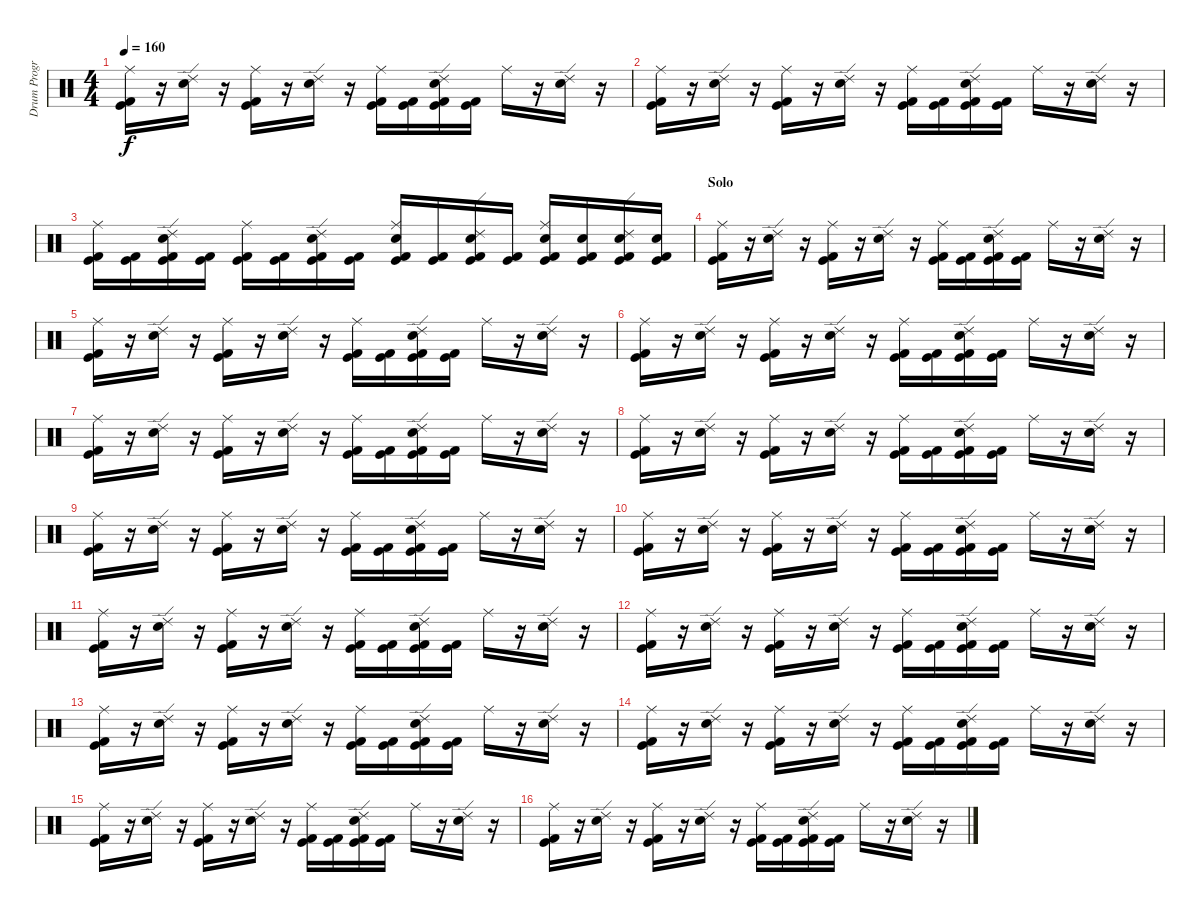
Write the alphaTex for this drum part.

\track ("Drum Program - BG" "Drum Progr") {instrument percussion}
\staff {score}
\articulation defaults
\ts (4 4)
\tempo 160
\clef neutral
\ks c
("Kick (hit) 2" "Kick (hit)" "Ride (middle)").16{dy f} r.16 ("Electric Snare (hit)" "Ride (edge) 2").16 r.16 ("Kick (hit)" "Kick (hit) 2" "Ride (middle)").16 r.16 ("Electric Snare (hit)" "Ride (edge) 2").16 r.16 ("Kick (hit)" "Kick (hit) 2" "Ride (middle)").16 ("Kick (hit)" "Kick (hit) 2").16 ("Kick (hit)" "Kick (hit) 2" "Electric Snare (hit)" "Ride (edge) 2").16 ("Kick (hit)" "Kick (hit) 2").16 "Ride (middle)".16 r.16 ("Electric Snare (hit)" "Ride (edge) 2").16 r.16 |
("Kick (hit) 2" "Kick (hit)" "Ride (middle)").16 r.16 ("Electric Snare (hit)" "Ride (edge) 2").16 r.16 ("Kick (hit)" "Kick (hit) 2" "Ride (middle)").16 r.16 ("Electric Snare (hit)" "Ride (edge) 2").16 r.16 ("Kick (hit)" "Kick (hit) 2" "Ride (middle)").16 ("Kick (hit)" "Kick (hit) 2").16 ("Kick (hit)" "Kick (hit) 2" "Electric Snare (hit)" "Ride (edge) 2").16 ("Kick (hit)" "Kick (hit) 2").16 "Ride (middle)".16 r.16 ("Electric Snare (hit)" "Ride (edge) 2").16 r.16 |
("Kick (hit)" "Kick (hit) 2" "Ride (middle)").16 ("Kick (hit)" "Kick (hit) 2").16 ("Kick (hit)" "Kick (hit) 2" "Electric Snare (hit)" "Ride (edge) 2").16 ("Kick (hit)" "Kick (hit) 2").16 ("Kick (hit)" "Kick (hit) 2" "Ride (middle)").16 ("Kick (hit)" "Kick (hit) 2").16 ("Kick (hit)" "Kick (hit) 2" "Electric Snare (hit)" "Ride (edge) 2").16 ("Kick (hit)" "Kick (hit) 2").16 ("Kick (hit)" "Kick (hit) 2" "Electric Snare (hit)" "Ride (middle)").16 ("Kick (hit)" "Kick (hit) 2").16 ("Kick (hit)" "Kick (hit) 2" "Electric Snare (hit)" "Ride (edge) 2").16 ("Kick (hit)" "Kick (hit) 2").16 ("Kick (hit)" "Kick (hit) 2" "Electric Snare (hit)" "Ride (middle)").16 ("Kick (hit)" "Kick (hit) 2" "Electric Snare (hit)").16 ("Kick (hit)" "Kick (hit) 2" "Electric Snare (hit)" "Ride (edge) 2").16 ("Kick (hit)" "Kick (hit) 2" "Electric Snare (hit)").16 |
\section ("" "Solo")
("Kick (hit) 2" "Kick (hit)" "Ride (middle)").16 r.16 ("Electric Snare (hit)" "Ride (edge) 2").16 r.16 ("Kick (hit)" "Kick (hit) 2" "Ride (middle)").16 r.16 ("Electric Snare (hit)" "Ride (edge) 2").16 r.16 ("Kick (hit)" "Kick (hit) 2" "Ride (middle)").16 ("Kick (hit)" "Kick (hit) 2").16 ("Kick (hit)" "Kick (hit) 2" "Electric Snare (hit)" "Ride (edge) 2").16 ("Kick (hit)" "Kick (hit) 2").16 "Ride (middle)".16 r.16 ("Electric Snare (hit)" "Ride (edge) 2").16 r.16 |
("Kick (hit) 2" "Kick (hit)" "Ride (middle)").16 r.16 ("Electric Snare (hit)" "Ride (edge) 2").16 r.16 ("Kick (hit)" "Kick (hit) 2" "Ride (middle)").16 r.16 ("Electric Snare (hit)" "Ride (edge) 2").16 r.16 ("Kick (hit)" "Kick (hit) 2" "Ride (middle)").16 ("Kick (hit)" "Kick (hit) 2").16 ("Kick (hit)" "Kick (hit) 2" "Electric Snare (hit)" "Ride (edge) 2").16 ("Kick (hit)" "Kick (hit) 2").16 "Ride (middle)".16 r.16 ("Electric Snare (hit)" "Ride (edge) 2").16 r.16 |
("Kick (hit) 2" "Kick (hit)" "Ride (middle)").16 r.16 ("Electric Snare (hit)" "Ride (edge) 2").16 r.16 ("Kick (hit)" "Kick (hit) 2" "Ride (middle)").16 r.16 ("Electric Snare (hit)" "Ride (edge) 2").16 r.16 ("Kick (hit)" "Kick (hit) 2" "Ride (middle)").16 ("Kick (hit)" "Kick (hit) 2").16 ("Kick (hit)" "Kick (hit) 2" "Electric Snare (hit)" "Ride (edge) 2").16 ("Kick (hit)" "Kick (hit) 2").16 "Ride (middle)".16 r.16 ("Electric Snare (hit)" "Ride (edge) 2").16 r.16 |
("Kick (hit) 2" "Kick (hit)" "Ride (middle)").16 r.16 ("Electric Snare (hit)" "Ride (edge) 2").16 r.16 ("Kick (hit)" "Kick (hit) 2" "Ride (middle)").16 r.16 ("Electric Snare (hit)" "Ride (edge) 2").16 r.16 ("Kick (hit)" "Kick (hit) 2" "Ride (middle)").16 ("Kick (hit)" "Kick (hit) 2").16 ("Kick (hit)" "Kick (hit) 2" "Electric Snare (hit)" "Ride (edge) 2").16 ("Kick (hit)" "Kick (hit) 2").16 "Ride (middle)".16 r.16 ("Electric Snare (hit)" "Ride (edge) 2").16 r.16 |
("Kick (hit) 2" "Kick (hit)" "Ride (middle)").16 r.16 ("Electric Snare (hit)" "Ride (edge) 2").16 r.16 ("Kick (hit)" "Kick (hit) 2" "Ride (middle)").16 r.16 ("Electric Snare (hit)" "Ride (edge) 2").16 r.16 ("Kick (hit)" "Kick (hit) 2" "Ride (middle)").16 ("Kick (hit)" "Kick (hit) 2").16 ("Kick (hit)" "Kick (hit) 2" "Electric Snare (hit)" "Ride (edge) 2").16 ("Kick (hit)" "Kick (hit) 2").16 "Ride (middle)".16 r.16 ("Electric Snare (hit)" "Ride (edge) 2").16 r.16 |
("Kick (hit) 2" "Kick (hit)" "Ride (middle)").16 r.16 ("Electric Snare (hit)" "Ride (edge) 2").16 r.16 ("Kick (hit)" "Kick (hit) 2" "Ride (middle)").16 r.16 ("Electric Snare (hit)" "Ride (edge) 2").16 r.16 ("Kick (hit)" "Kick (hit) 2" "Ride (middle)").16 ("Kick (hit)" "Kick (hit) 2").16 ("Kick (hit)" "Kick (hit) 2" "Electric Snare (hit)" "Ride (edge) 2").16 ("Kick (hit)" "Kick (hit) 2").16 "Ride (middle)".16 r.16 ("Electric Snare (hit)" "Ride (edge) 2").16 r.16 |
("Kick (hit) 2" "Kick (hit)" "Ride (middle)").16 r.16 ("Electric Snare (hit)" "Ride (edge) 2").16 r.16 ("Kick (hit)" "Kick (hit) 2" "Ride (middle)").16 r.16 ("Electric Snare (hit)" "Ride (edge) 2").16 r.16 ("Kick (hit)" "Kick (hit) 2" "Ride (middle)").16 ("Kick (hit)" "Kick (hit) 2").16 ("Kick (hit)" "Kick (hit) 2" "Electric Snare (hit)" "Ride (edge) 2").16 ("Kick (hit)" "Kick (hit) 2").16 "Ride (middle)".16 r.16 ("Electric Snare (hit)" "Ride (edge) 2").16 r.16 |
("Kick (hit) 2" "Kick (hit)" "Ride (middle)").16 r.16 ("Electric Snare (hit)" "Ride (edge) 2").16 r.16 ("Kick (hit)" "Kick (hit) 2" "Ride (middle)").16 r.16 ("Electric Snare (hit)" "Ride (edge) 2").16 r.16 ("Kick (hit)" "Kick (hit) 2" "Ride (middle)").16 ("Kick (hit)" "Kick (hit) 2").16 ("Kick (hit)" "Kick (hit) 2" "Electric Snare (hit)" "Ride (edge) 2").16 ("Kick (hit)" "Kick (hit) 2").16 "Ride (middle)".16 r.16 ("Electric Snare (hit)" "Ride (edge) 2").16 r.16 |
("Kick (hit) 2" "Kick (hit)" "Ride (middle)").16 r.16 ("Electric Snare (hit)" "Ride (edge) 2").16 r.16 ("Kick (hit)" "Kick (hit) 2" "Ride (middle)").16 r.16 ("Electric Snare (hit)" "Ride (edge) 2").16 r.16 ("Kick (hit)" "Kick (hit) 2" "Ride (middle)").16 ("Kick (hit)" "Kick (hit) 2").16 ("Kick (hit)" "Kick (hit) 2" "Electric Snare (hit)" "Ride (edge) 2").16 ("Kick (hit)" "Kick (hit) 2").16 "Ride (middle)".16 r.16 ("Electric Snare (hit)" "Ride (edge) 2").16 r.16 |
("Kick (hit) 2" "Kick (hit)" "Ride (middle)").16 r.16 ("Electric Snare (hit)" "Ride (edge) 2").16 r.16 ("Kick (hit)" "Kick (hit) 2" "Ride (middle)").16 r.16 ("Electric Snare (hit)" "Ride (edge) 2").16 r.16 ("Kick (hit)" "Kick (hit) 2" "Ride (middle)").16 ("Kick (hit)" "Kick (hit) 2").16 ("Kick (hit)" "Kick (hit) 2" "Electric Snare (hit)" "Ride (edge) 2").16 ("Kick (hit)" "Kick (hit) 2").16 "Ride (middle)".16 r.16 ("Electric Snare (hit)" "Ride (edge) 2").16 r.16 |
("Kick (hit) 2" "Kick (hit)" "Ride (middle)").16 r.16 ("Electric Snare (hit)" "Ride (edge) 2").16 r.16 ("Kick (hit)" "Kick (hit) 2" "Ride (middle)").16 r.16 ("Electric Snare (hit)" "Ride (edge) 2").16 r.16 ("Kick (hit)" "Kick (hit) 2" "Ride (middle)").16 ("Kick (hit)" "Kick (hit) 2").16 ("Kick (hit)" "Kick (hit) 2" "Electric Snare (hit)" "Ride (edge) 2").16 ("Kick (hit)" "Kick (hit) 2").16 "Ride (middle)".16 r.16 ("Electric Snare (hit)" "Ride (edge) 2").16 r.16 |
("Kick (hit) 2" "Kick (hit)" "Ride (middle)").16 r.16 ("Electric Snare (hit)" "Ride (edge) 2").16 r.16 ("Kick (hit)" "Kick (hit) 2" "Ride (middle)").16 r.16 ("Electric Snare (hit)" "Ride (edge) 2").16 r.16 ("Kick (hit)" "Kick (hit) 2" "Ride (middle)").16 ("Kick (hit)" "Kick (hit) 2").16 ("Kick (hit)" "Kick (hit) 2" "Electric Snare (hit)" "Ride (edge) 2").16 ("Kick (hit)" "Kick (hit) 2").16 "Ride (middle)".16 r.16 ("Electric Snare (hit)" "Ride (edge) 2").16 r.16 |
("Kick (hit) 2" "Kick (hit)" "Ride (middle)").16 r.16 ("Electric Snare (hit)" "Ride (edge) 2").16 r.16 ("Kick (hit)" "Kick (hit) 2" "Ride (middle)").16 r.16 ("Electric Snare (hit)" "Ride (edge) 2").16 r.16 ("Kick (hit)" "Kick (hit) 2" "Ride (middle)").16 ("Kick (hit)" "Kick (hit) 2").16 ("Kick (hit)" "Kick (hit) 2" "Electric Snare (hit)" "Ride (edge) 2").16 ("Kick (hit)" "Kick (hit) 2").16 "Ride (middle)".16 r.16 ("Electric Snare (hit)" "Ride (edge) 2").16 r.16
